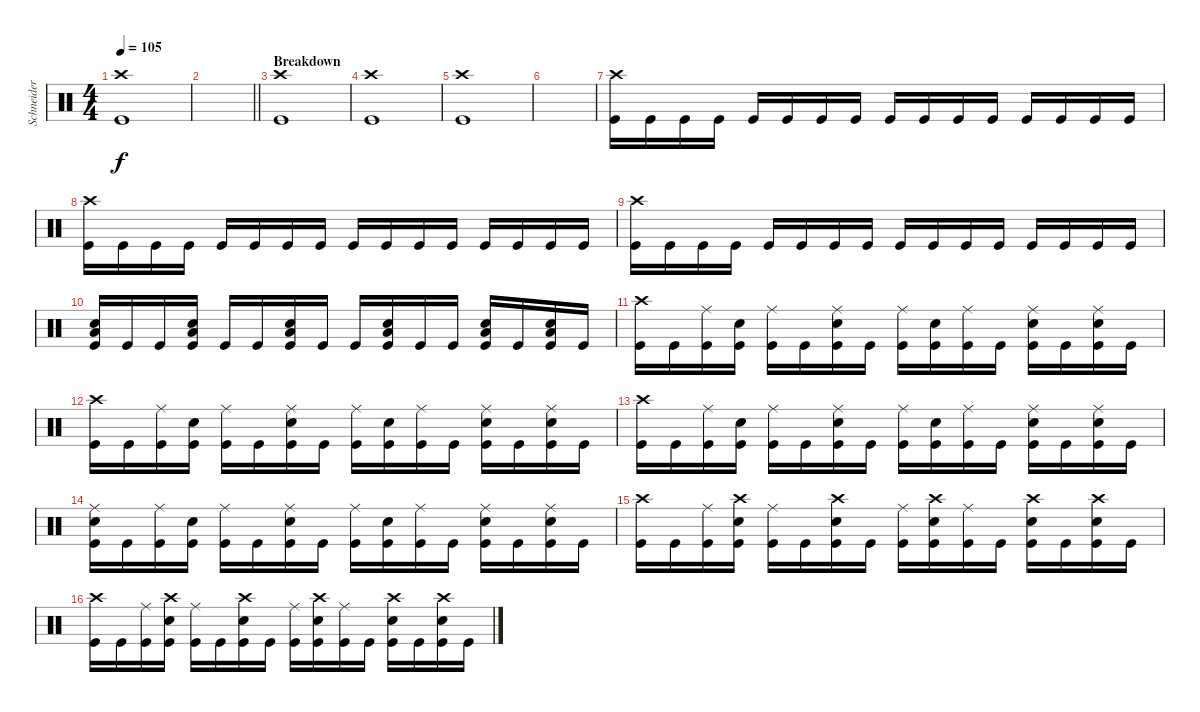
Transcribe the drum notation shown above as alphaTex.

\track ("Schneider" "Schneider") {instrument percussion}
\staff {score}
\articulation defaults
\ts (4 4)
\tempo 105
\clef neutral
\ks c
("Crash high (hit)" "Kick (hit)").1{dy f} |
\barLineRight lightlight
|
\section ("" "Breakdown")
("Crash high (hit)" "Kick (hit)").1 |
("Crash high (hit)" "Kick (hit)").1 |
("Crash high (hit)" "Kick (hit)").1 |
|
("Crash high (hit)" "Kick (hit)").16 "Kick (hit)".16 "Kick (hit)".16 "Kick (hit)".16 "Kick (hit)".16 "Kick (hit)".16 "Kick (hit)".16 "Kick (hit)".16 "Kick (hit)".16 "Kick (hit)".16 "Kick (hit)".16 "Kick (hit)".16 "Kick (hit)".16 "Kick (hit)".16 "Kick (hit)".16 "Kick (hit)".16 |
("Crash high (hit)" "Kick (hit)").16 "Kick (hit)".16 "Kick (hit)".16 "Kick (hit)".16 "Kick (hit)".16 "Kick (hit)".16 "Kick (hit)".16 "Kick (hit)".16 "Kick (hit)".16 "Kick (hit)".16 "Kick (hit)".16 "Kick (hit)".16 "Kick (hit)".16 "Kick (hit)".16 "Kick (hit)".16 "Kick (hit)".16 |
("Crash high (hit)" "Kick (hit)").16 "Kick (hit)".16 "Kick (hit)".16 "Kick (hit)".16 "Kick (hit)".16 "Kick (hit)".16 "Kick (hit)".16 "Kick (hit)".16 "Kick (hit)".16 "Kick (hit)".16 "Kick (hit)".16 "Kick (hit)".16 "Kick (hit)".16 "Kick (hit)".16 "Kick (hit)".16 "Kick (hit)".16 |
("Electric Snare (hit)" "Low Floor Tom (hit)" "Kick (hit)").16 "Kick (hit)".16 "Kick (hit)".16 ("Electric Snare (hit)" "Low Floor Tom (hit)" "Kick (hit)").16 "Kick (hit)".16 "Kick (hit)".16 ("Electric Snare (hit)" "Low Floor Tom (hit)" "Kick (hit)").16 "Kick (hit)".16 "Kick (hit)".16 ("Electric Snare (hit)" "Low Floor Tom (hit)" "Kick (hit)").16 "Kick (hit)".16 "Kick (hit)".16 ("Electric Snare (hit)" "Low Floor Tom (hit)" "Kick (hit)").16 "Kick (hit)".16 ("Electric Snare (hit)" "Low Floor Tom (hit)" "Kick (hit)").16 "Kick (hit)".16 |
("Crash high (hit)" "Kick (hit)").16 "Kick (hit)".16 ("Ride (middle)" "Kick (hit)").16 ("Electric Snare (hit)" "Kick (hit)").16 ("Ride (middle)" "Kick (hit)").16 "Kick (hit)".16 ("Ride (middle)" "Electric Snare (hit)" "Kick (hit)").16 "Kick (hit)".16 ("Ride (middle)" "Kick (hit)").16 ("Electric Snare (hit)" "Kick (hit)").16 ("Ride (middle)" "Kick (hit)").16 "Kick (hit)".16 ("Ride (middle)" "Electric Snare (hit)" "Kick (hit)").16 "Kick (hit)".16 ("Ride (middle)" "Electric Snare (hit)" "Kick (hit)").16 "Kick (hit)".16 |
("Crash high (hit)" "Kick (hit)").16 "Kick (hit)".16 ("Ride (middle)" "Kick (hit)").16 ("Electric Snare (hit)" "Kick (hit)").16 ("Ride (middle)" "Kick (hit)").16 "Kick (hit)".16 ("Ride (middle)" "Electric Snare (hit)" "Kick (hit)").16 "Kick (hit)".16 ("Ride (middle)" "Kick (hit)").16 ("Electric Snare (hit)" "Kick (hit)").16 ("Ride (middle)" "Kick (hit)").16 "Kick (hit)".16 ("Ride (middle)" "Electric Snare (hit)" "Kick (hit)").16 "Kick (hit)".16 ("Ride (middle)" "Electric Snare (hit)" "Kick (hit)").16 "Kick (hit)".16 |
("Crash high (hit)" "Kick (hit)").16 "Kick (hit)".16 ("Ride (middle)" "Kick (hit)").16 ("Electric Snare (hit)" "Kick (hit)").16 ("Ride (middle)" "Kick (hit)").16 "Kick (hit)".16 ("Ride (middle)" "Electric Snare (hit)" "Kick (hit)").16 "Kick (hit)".16 ("Ride (middle)" "Kick (hit)").16 ("Electric Snare (hit)" "Kick (hit)").16 ("Ride (middle)" "Kick (hit)").16 "Kick (hit)".16 ("Ride (middle)" "Electric Snare (hit)" "Kick (hit)").16 "Kick (hit)".16 ("Ride (middle)" "Electric Snare (hit)" "Kick (hit)").16 "Kick (hit)".16 |
("Ride (middle)" "Electric Snare (hit)" "Kick (hit)").16 "Kick (hit)".16 ("Ride (middle)" "Kick (hit)").16 ("Electric Snare (hit)" "Kick (hit)").16 ("Ride (middle)" "Kick (hit)").16 "Kick (hit)".16 ("Ride (middle)" "Electric Snare (hit)" "Kick (hit)").16 "Kick (hit)".16 ("Ride (middle)" "Kick (hit)").16 ("Electric Snare (hit)" "Kick (hit)").16 ("Ride (middle)" "Kick (hit)").16 "Kick (hit)".16 ("Ride (middle)" "Electric Snare (hit)" "Kick (hit)").16 "Kick (hit)".16 ("Ride (middle)" "Electric Snare (hit)" "Kick (hit)").16 "Kick (hit)".16 |
("Crash high (hit)" "Kick (hit)").16 "Kick (hit)".16 ("Ride (middle)" "Kick (hit)").16 ("Crash high (hit)" "Electric Snare (hit)" "Kick (hit)").16 ("Ride (middle)" "Kick (hit)").16 "Kick (hit)".16 ("Crash high (hit)" "Electric Snare (hit)" "Kick (hit)").16 "Kick (hit)".16 ("Ride (middle)" "Kick (hit)").16 ("Crash high (hit)" "Electric Snare (hit)" "Kick (hit)").16 ("Ride (middle)" "Kick (hit)").16 "Kick (hit)".16 ("Crash high (hit)" "Electric Snare (hit)" "Kick (hit)").16 "Kick (hit)".16 ("Crash high (hit)" "Electric Snare (hit)" "Kick (hit)").16 "Kick (hit)".16 |
("Crash high (hit)" "Kick (hit)").16 "Kick (hit)".16 ("Ride (middle)" "Kick (hit)").16 ("Crash high (hit)" "Electric Snare (hit)" "Kick (hit)").16 ("Ride (middle)" "Kick (hit)").16 "Kick (hit)".16 ("Crash high (hit)" "Electric Snare (hit)" "Kick (hit)").16 "Kick (hit)".16 ("Ride (middle)" "Kick (hit)").16 ("Crash high (hit)" "Electric Snare (hit)" "Kick (hit)").16 ("Ride (middle)" "Kick (hit)").16 "Kick (hit)".16 ("Crash high (hit)" "Electric Snare (hit)" "Kick (hit)").16 "Kick (hit)".16 ("Crash high (hit)" "Electric Snare (hit)" "Kick (hit)").16 "Kick (hit)".16
